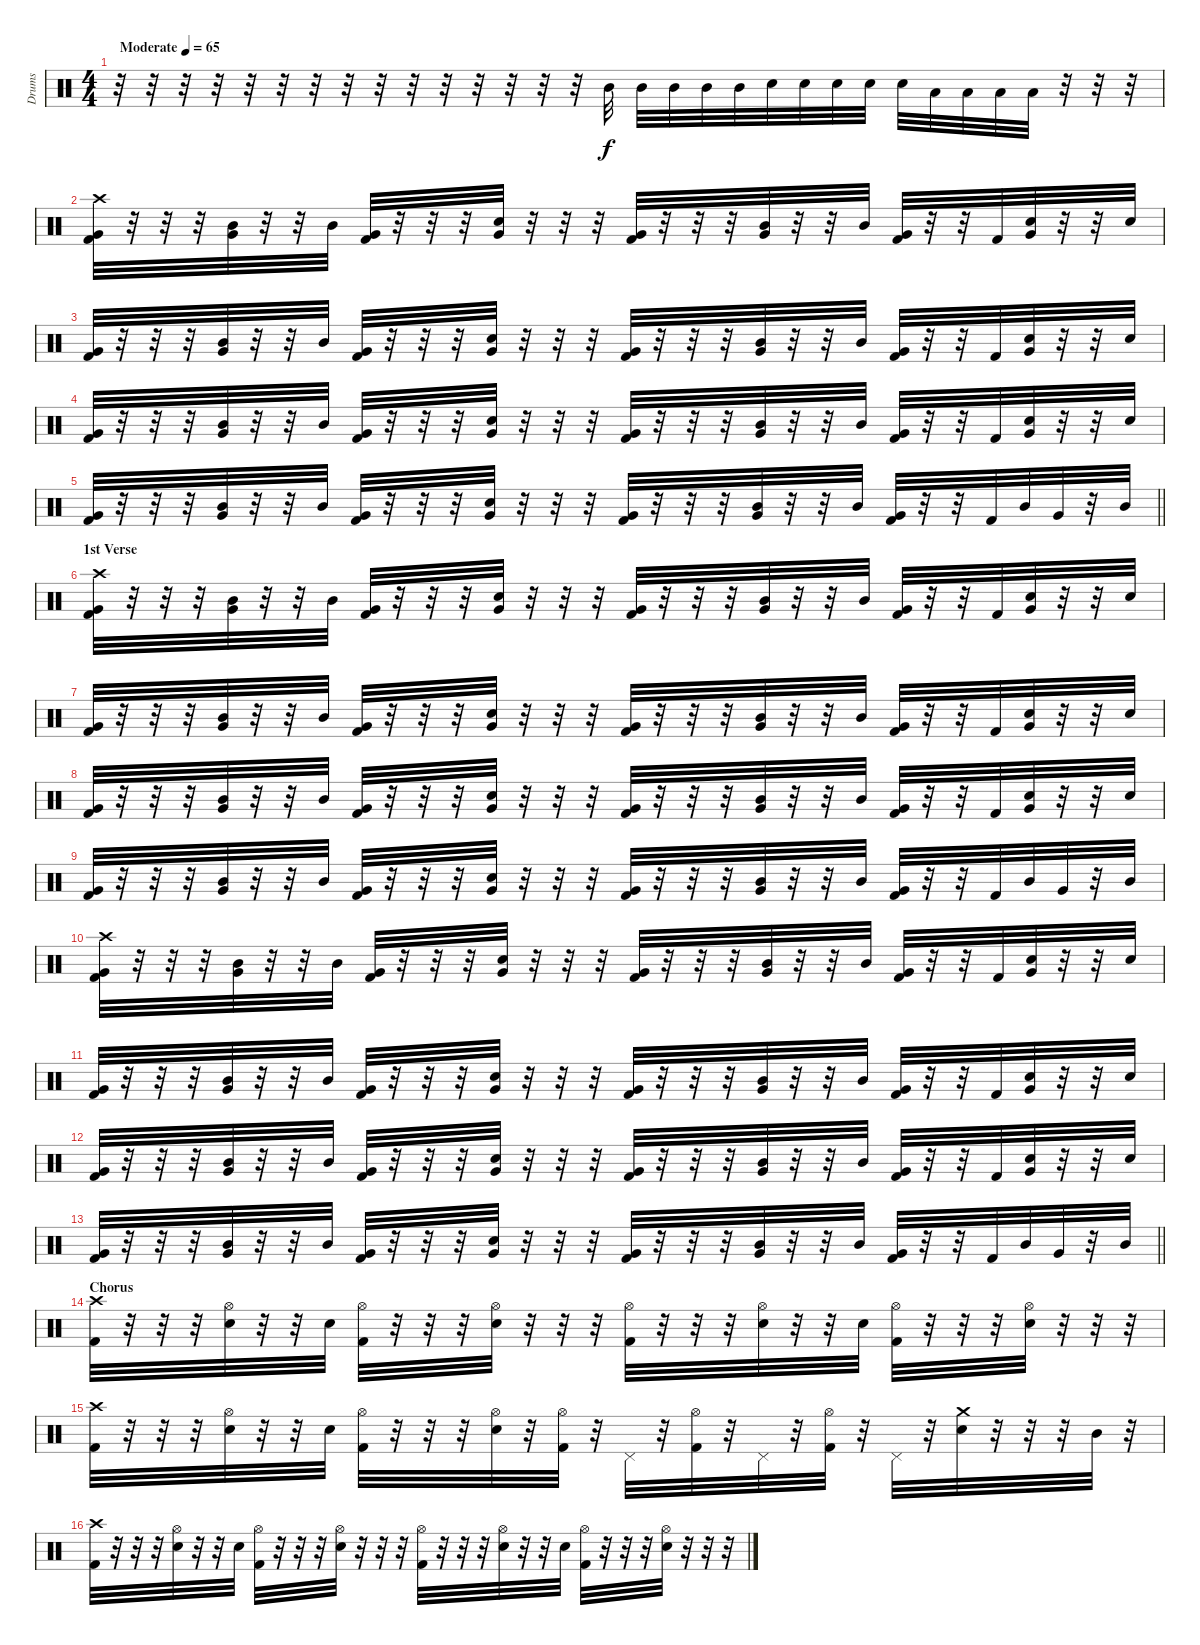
\track ("Drums" "Drums") {instrument percussion}
\staff {score}
\articulation defaults
\ts (4 4)
\tempo (65 "Moderate")
\clef neutral
\ks c
r.32{dy f} r.32 r.32 r.32 r.32 r.32 r.32 r.32 r.32 r.32 r.32 r.32 r.32 r.32 r.32 "Mid Tom (hit)".32 "Mid Tom (hit)".32 "Mid Tom (hit)".32 "Mid Tom (hit)".32 "Mid Tom (hit)".32 "Snare (hit) 2".32 "Snare (hit) 2".32 "Snare (hit) 2".32 "Snare (hit) 2".32 "Snare (hit) 2".32 "Low Tom (hit)".32 "Low Tom (hit)".32 "Low Tom (hit)".32 "Low Tom (hit)".32 r.32 r.32 r.32 |
("Crash high (hit)" "Very Low Tom (hit)" "Kick (hit) 2").32 r.32 r.32 r.32 ("Mid Tom (hit)" "Very Low Tom (hit)").32 r.32 r.32 "Mid Tom (hit)".32 ("Very Low Tom (hit)" "Kick (hit) 2").32 r.32 r.32 r.32 ("Snare (hit) 2" "Very Low Tom (hit)").32 r.32 r.32 r.32 ("Very Low Tom (hit)" "Kick (hit) 2").32 r.32 r.32 r.32 ("Mid Tom (hit)" "Very Low Tom (hit)").32 r.32 r.32 "Mid Tom (hit)".32 ("Very Low Tom (hit)" "Kick (hit) 2").32 r.32 r.32 "Kick (hit) 2".32 ("Snare (hit) 2" "Very Low Tom (hit)").32 r.32 r.32 "Snare (hit) 2".32 |
("Very Low Tom (hit)" "Kick (hit) 2").32 r.32 r.32 r.32 ("Mid Tom (hit)" "Very Low Tom (hit)").32 r.32 r.32 "Mid Tom (hit)".32 ("Very Low Tom (hit)" "Kick (hit) 2").32 r.32 r.32 r.32 ("Snare (hit) 2" "Very Low Tom (hit)").32 r.32 r.32 r.32 ("Very Low Tom (hit)" "Kick (hit) 2").32 r.32 r.32 r.32 ("Mid Tom (hit)" "Very Low Tom (hit)").32 r.32 r.32 "Mid Tom (hit)".32 ("Very Low Tom (hit)" "Kick (hit) 2").32 r.32 r.32 "Kick (hit) 2".32 ("Snare (hit) 2" "Very Low Tom (hit)").32 r.32 r.32 "Snare (hit) 2".32 |
("Very Low Tom (hit)" "Kick (hit) 2").32 r.32 r.32 r.32 ("Mid Tom (hit)" "Very Low Tom (hit)").32 r.32 r.32 "Mid Tom (hit)".32 ("Very Low Tom (hit)" "Kick (hit) 2").32 r.32 r.32 r.32 ("Snare (hit) 2" "Very Low Tom (hit)").32 r.32 r.32 r.32 ("Very Low Tom (hit)" "Kick (hit) 2").32 r.32 r.32 r.32 ("Mid Tom (hit)" "Very Low Tom (hit)").32 r.32 r.32 "Mid Tom (hit)".32 ("Very Low Tom (hit)" "Kick (hit) 2").32 r.32 r.32 "Kick (hit) 2".32 ("Snare (hit) 2" "Very Low Tom (hit)").32 r.32 r.32 "Snare (hit) 2".32 |
\barLineRight lightlight
("Very Low Tom (hit)" "Kick (hit) 2").32 r.32 r.32 r.32 ("Mid Tom (hit)" "Very Low Tom (hit)").32 r.32 r.32 "Mid Tom (hit)".32 ("Very Low Tom (hit)" "Kick (hit) 2").32 r.32 r.32 r.32 ("Snare (hit) 2" "Very Low Tom (hit)").32 r.32 r.32 r.32 ("Very Low Tom (hit)" "Kick (hit) 2").32 r.32 r.32 r.32 ("Mid Tom (hit)" "Very Low Tom (hit)").32 r.32 r.32 "Mid Tom (hit)".32 ("Very Low Tom (hit)" "Kick (hit) 2").32 r.32 r.32 "Kick (hit) 2".32 "Mid Tom (hit)".32 "Very Low Tom (hit)".32 r.32 "Mid Tom (hit)".32 |
\section ("" "1st Verse")
("Crash high (hit)" "Very Low Tom (hit)" "Kick (hit) 2").32 r.32 r.32 r.32 ("Mid Tom (hit)" "Very Low Tom (hit)").32 r.32 r.32 "Mid Tom (hit)".32 ("Very Low Tom (hit)" "Kick (hit) 2").32 r.32 r.32 r.32 ("Snare (hit) 2" "Very Low Tom (hit)").32 r.32 r.32 r.32 ("Very Low Tom (hit)" "Kick (hit) 2").32 r.32 r.32 r.32 ("Mid Tom (hit)" "Very Low Tom (hit)").32 r.32 r.32 "Mid Tom (hit)".32 ("Very Low Tom (hit)" "Kick (hit) 2").32 r.32 r.32 "Kick (hit) 2".32 ("Snare (hit) 2" "Very Low Tom (hit)").32 r.32 r.32 "Snare (hit) 2".32 |
("Very Low Tom (hit)" "Kick (hit) 2").32 r.32 r.32 r.32 ("Mid Tom (hit)" "Very Low Tom (hit)").32 r.32 r.32 "Mid Tom (hit)".32 ("Very Low Tom (hit)" "Kick (hit) 2").32 r.32 r.32 r.32 ("Snare (hit) 2" "Very Low Tom (hit)").32 r.32 r.32 r.32 ("Very Low Tom (hit)" "Kick (hit) 2").32 r.32 r.32 r.32 ("Mid Tom (hit)" "Very Low Tom (hit)").32 r.32 r.32 "Mid Tom (hit)".32 ("Very Low Tom (hit)" "Kick (hit) 2").32 r.32 r.32 "Kick (hit) 2".32 ("Snare (hit) 2" "Very Low Tom (hit)").32 r.32 r.32 "Snare (hit) 2".32 |
("Very Low Tom (hit)" "Kick (hit) 2").32 r.32 r.32 r.32 ("Mid Tom (hit)" "Very Low Tom (hit)").32 r.32 r.32 "Mid Tom (hit)".32 ("Very Low Tom (hit)" "Kick (hit) 2").32 r.32 r.32 r.32 ("Snare (hit) 2" "Very Low Tom (hit)").32 r.32 r.32 r.32 ("Very Low Tom (hit)" "Kick (hit) 2").32 r.32 r.32 r.32 ("Mid Tom (hit)" "Very Low Tom (hit)").32 r.32 r.32 "Mid Tom (hit)".32 ("Very Low Tom (hit)" "Kick (hit) 2").32 r.32 r.32 "Kick (hit) 2".32 ("Snare (hit) 2" "Very Low Tom (hit)").32 r.32 r.32 "Snare (hit) 2".32 |
("Very Low Tom (hit)" "Kick (hit) 2").32 r.32 r.32 r.32 ("Mid Tom (hit)" "Very Low Tom (hit)").32 r.32 r.32 "Mid Tom (hit)".32 ("Very Low Tom (hit)" "Kick (hit) 2").32 r.32 r.32 r.32 ("Snare (hit) 2" "Very Low Tom (hit)").32 r.32 r.32 r.32 ("Very Low Tom (hit)" "Kick (hit) 2").32 r.32 r.32 r.32 ("Mid Tom (hit)" "Very Low Tom (hit)").32 r.32 r.32 "Mid Tom (hit)".32 ("Very Low Tom (hit)" "Kick (hit) 2").32 r.32 r.32 "Kick (hit) 2".32 "Mid Tom (hit)".32 "Very Low Tom (hit)".32 r.32 "Mid Tom (hit)".32 |
("Crash high (hit)" "Very Low Tom (hit)" "Kick (hit) 2").32 r.32 r.32 r.32 ("Mid Tom (hit)" "Very Low Tom (hit)").32 r.32 r.32 "Mid Tom (hit)".32 ("Very Low Tom (hit)" "Kick (hit) 2").32 r.32 r.32 r.32 ("Snare (hit) 2" "Very Low Tom (hit)").32 r.32 r.32 r.32 ("Very Low Tom (hit)" "Kick (hit) 2").32 r.32 r.32 r.32 ("Mid Tom (hit)" "Very Low Tom (hit)").32 r.32 r.32 "Mid Tom (hit)".32 ("Very Low Tom (hit)" "Kick (hit) 2").32 r.32 r.32 "Kick (hit) 2".32 ("Snare (hit) 2" "Very Low Tom (hit)").32 r.32 r.32 "Snare (hit) 2".32 |
("Very Low Tom (hit)" "Kick (hit) 2").32 r.32 r.32 r.32 ("Mid Tom (hit)" "Very Low Tom (hit)").32 r.32 r.32 "Mid Tom (hit)".32 ("Very Low Tom (hit)" "Kick (hit) 2").32 r.32 r.32 r.32 ("Snare (hit) 2" "Very Low Tom (hit)").32 r.32 r.32 r.32 ("Very Low Tom (hit)" "Kick (hit) 2").32 r.32 r.32 r.32 ("Mid Tom (hit)" "Very Low Tom (hit)").32 r.32 r.32 "Mid Tom (hit)".32 ("Very Low Tom (hit)" "Kick (hit) 2").32 r.32 r.32 "Kick (hit) 2".32 ("Snare (hit) 2" "Very Low Tom (hit)").32 r.32 r.32 "Snare (hit) 2".32 |
("Very Low Tom (hit)" "Kick (hit) 2").32 r.32 r.32 r.32 ("Mid Tom (hit)" "Very Low Tom (hit)").32 r.32 r.32 "Mid Tom (hit)".32 ("Very Low Tom (hit)" "Kick (hit) 2").32 r.32 r.32 r.32 ("Snare (hit) 2" "Very Low Tom (hit)").32 r.32 r.32 r.32 ("Very Low Tom (hit)" "Kick (hit) 2").32 r.32 r.32 r.32 ("Mid Tom (hit)" "Very Low Tom (hit)").32 r.32 r.32 "Mid Tom (hit)".32 ("Very Low Tom (hit)" "Kick (hit) 2").32 r.32 r.32 "Kick (hit) 2".32 ("Snare (hit) 2" "Very Low Tom (hit)").32 r.32 r.32 "Snare (hit) 2".32 |
\barLineRight lightlight
("Very Low Tom (hit)" "Kick (hit) 2").32 r.32 r.32 r.32 ("Mid Tom (hit)" "Very Low Tom (hit)").32 r.32 r.32 "Mid Tom (hit)".32 ("Very Low Tom (hit)" "Kick (hit) 2").32 r.32 r.32 r.32 ("Snare (hit) 2" "Very Low Tom (hit)").32 r.32 r.32 r.32 ("Very Low Tom (hit)" "Kick (hit) 2").32 r.32 r.32 r.32 ("Mid Tom (hit)" "Very Low Tom (hit)").32 r.32 r.32 "Mid Tom (hit)".32 ("Very Low Tom (hit)" "Kick (hit) 2").32 r.32 r.32 "Kick (hit) 2".32 "Mid Tom (hit)".32 "Very Low Tom (hit)".32 r.32 "Mid Tom (hit)".32 |
\section ("" "Chorus")
("Crash high (hit)" "Kick (hit) 2").32 r.32 r.32 r.32 ("Hi-Hat (open)" "Snare (hit) 2").32 r.32 r.32 "Snare (hit) 2".32 ("Hi-Hat (open)" "Kick (hit) 2").32 r.32 r.32 r.32 ("Hi-Hat (open)" "Snare (hit) 2").32 r.32 r.32 r.32 ("Hi-Hat (open)" "Kick (hit) 2").32 r.32 r.32 r.32 ("Hi-Hat (open)" "Snare (hit) 2").32 r.32 r.32 "Snare (hit) 2".32 ("Hi-Hat (open)" "Kick (hit) 2").32 r.32 r.32 r.32 ("Hi-Hat (open)" "Snare (hit) 2").32 r.32 r.32 r.32 |
("Crash high (hit)" "Kick (hit) 2").32 r.32 r.32 r.32 ("Hi-Hat (open)" "Snare (hit) 2").32 r.32 r.32 "Snare (hit) 2".32 ("Hi-Hat (open)" "Kick (hit) 2").32 r.32 r.32 r.32 ("Hi-Hat (open)" "Snare (hit) 2").32 r.32 ("Hi-Hat (open)" "Kick (hit) 2").32 r.32 "Pedal Hi-Hat (hit)".32 r.32 ("Hi-Hat (open)" "Kick (hit) 2").32 r.32 "Pedal Hi-Hat (hit)".32 r.32 ("Hi-Hat (open)" "Kick (hit) 2").32 r.32 "Pedal Hi-Hat (hit)".32 r.32 ("Crash medium (hit)" "Snare (hit) 2").32 r.32 r.32 r.32 "Mid Tom (hit)".32 r.32 |
("Crash high (hit)" "Kick (hit) 2").32 r.32 r.32 r.32 ("Hi-Hat (open)" "Snare (hit) 2").32 r.32 r.32 "Snare (hit) 2".32 ("Hi-Hat (open)" "Kick (hit) 2").32 r.32 r.32 r.32 ("Hi-Hat (open)" "Snare (hit) 2").32 r.32 r.32 r.32 ("Hi-Hat (open)" "Kick (hit) 2").32 r.32 r.32 r.32 ("Hi-Hat (open)" "Snare (hit) 2").32 r.32 r.32 "Snare (hit) 2".32 ("Hi-Hat (open)" "Kick (hit) 2").32 r.32 r.32 r.32 ("Hi-Hat (open)" "Snare (hit) 2").32 r.32 r.32 r.32
